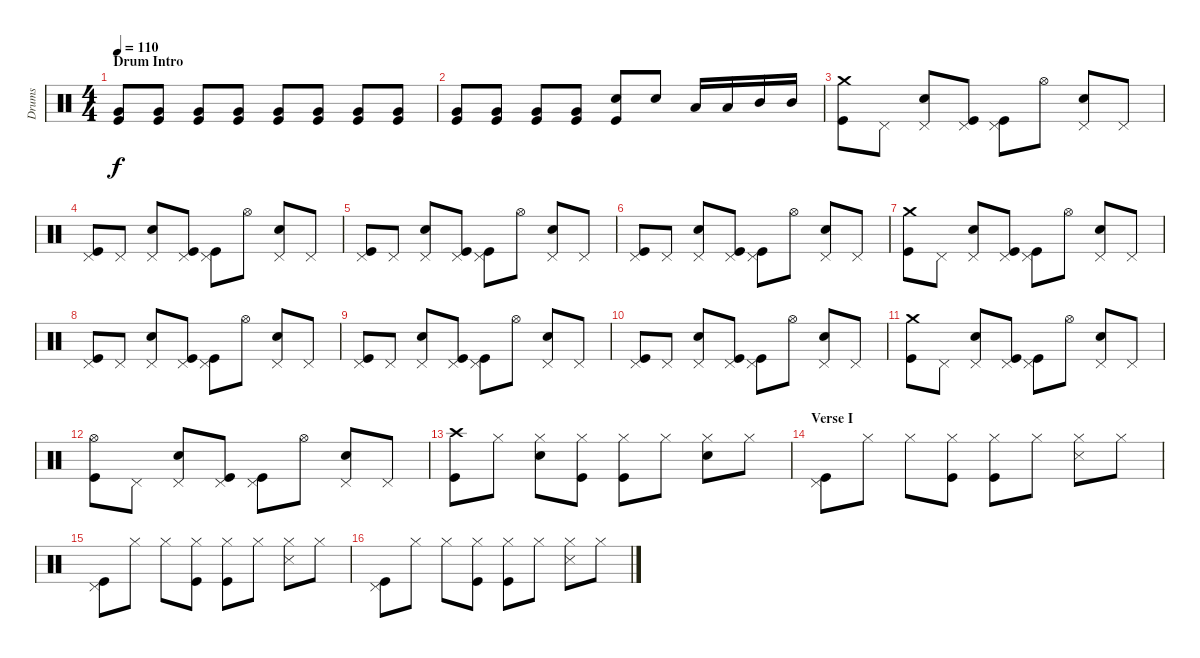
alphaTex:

\track ("Drums" "Drums") {instrument percussion}
\staff {score}
\articulation defaults
\ts (4 4)
\section ("" "Drum Intro")
\tempo 110
\clef neutral
\ks c
("Very Low Tom (hit)" "Kick (hit)").8{dy f volume 6} ("Very Low Tom (hit)" "Kick (hit)").8 ("Very Low Tom (hit)" "Kick (hit)").8{volume 7} ("Very Low Tom (hit)" "Kick (hit)").8 ("Very Low Tom (hit)" "Kick (hit)").8{volume 8} ("Very Low Tom (hit)" "Kick (hit)").8 ("Very Low Tom (hit)" "Kick (hit)").8{volume 10} ("Very Low Tom (hit)" "Kick (hit)").8 |
("Very Low Tom (hit)" "Kick (hit)").8{volume 12} ("Very Low Tom (hit)" "Kick (hit)").8 ("Very Low Tom (hit)" "Kick (hit)").8 ("Very Low Tom (hit)" "Kick (hit)").8 ("Snare (hit) 2" "Kick (hit)").8 "Snare (hit) 2".8 "Low Tom (hit)".16 "Low Tom (hit)".16 "Mid Tom (hit)".16 "Mid Tom (hit)".16 |
("Crash medium (hit)" "Kick (hit)").8 "Pedal Hi-Hat (hit)".8 ("Pedal Hi-Hat (hit)" "Snare (hit) 2").8 ("Pedal Hi-Hat (hit)" "Kick (hit)").8 ("Pedal Hi-Hat (hit)" "Kick (hit)").8 "Hi-Hat (open)".8 ("Pedal Hi-Hat (hit)" "Snare (hit) 2").8 "Pedal Hi-Hat (hit)".8 |
("Pedal Hi-Hat (hit)" "Kick (hit)").8 "Pedal Hi-Hat (hit)".8 ("Pedal Hi-Hat (hit)" "Snare (hit) 2").8 ("Pedal Hi-Hat (hit)" "Kick (hit)").8 ("Pedal Hi-Hat (hit)" "Kick (hit)").8 "Hi-Hat (open)".8 ("Pedal Hi-Hat (hit)" "Snare (hit) 2").8 "Pedal Hi-Hat (hit)".8 |
("Pedal Hi-Hat (hit)" "Kick (hit)").8 "Pedal Hi-Hat (hit)".8 ("Pedal Hi-Hat (hit)" "Snare (hit) 2").8 ("Pedal Hi-Hat (hit)" "Kick (hit)").8 ("Pedal Hi-Hat (hit)" "Kick (hit)").8 "Hi-Hat (open)".8 ("Pedal Hi-Hat (hit)" "Snare (hit) 2").8 "Pedal Hi-Hat (hit)".8 |
("Pedal Hi-Hat (hit)" "Kick (hit)").8 "Pedal Hi-Hat (hit)".8 ("Pedal Hi-Hat (hit)" "Snare (hit) 2").8 ("Pedal Hi-Hat (hit)" "Kick (hit)").8 ("Pedal Hi-Hat (hit)" "Kick (hit)").8 "Hi-Hat (open)".8 ("Pedal Hi-Hat (hit)" "Snare (hit) 2").8 "Pedal Hi-Hat (hit)".8 |
("Crash medium (hit)" "Kick (hit)").8 "Pedal Hi-Hat (hit)".8 ("Pedal Hi-Hat (hit)" "Snare (hit) 2").8 ("Pedal Hi-Hat (hit)" "Kick (hit)").8 ("Pedal Hi-Hat (hit)" "Kick (hit)").8 "Hi-Hat (open)".8 ("Pedal Hi-Hat (hit)" "Snare (hit) 2").8 "Pedal Hi-Hat (hit)".8 |
("Pedal Hi-Hat (hit)" "Kick (hit)").8 "Pedal Hi-Hat (hit)".8 ("Pedal Hi-Hat (hit)" "Snare (hit) 2").8 ("Pedal Hi-Hat (hit)" "Kick (hit)").8 ("Pedal Hi-Hat (hit)" "Kick (hit)").8 "Hi-Hat (open)".8 ("Pedal Hi-Hat (hit)" "Snare (hit) 2").8 "Pedal Hi-Hat (hit)".8 |
("Pedal Hi-Hat (hit)" "Kick (hit)").8 "Pedal Hi-Hat (hit)".8 ("Pedal Hi-Hat (hit)" "Snare (hit) 2").8 ("Pedal Hi-Hat (hit)" "Kick (hit)").8 ("Pedal Hi-Hat (hit)" "Kick (hit)").8 "Hi-Hat (open)".8 ("Pedal Hi-Hat (hit)" "Snare (hit) 2").8 "Pedal Hi-Hat (hit)".8 |
("Pedal Hi-Hat (hit)" "Kick (hit)").8 "Pedal Hi-Hat (hit)".8 ("Pedal Hi-Hat (hit)" "Snare (hit) 2").8 ("Pedal Hi-Hat (hit)" "Kick (hit)").8 ("Pedal Hi-Hat (hit)" "Kick (hit)").8 "Hi-Hat (open)".8 ("Pedal Hi-Hat (hit)" "Snare (hit) 2").8 "Pedal Hi-Hat (hit)".8 |
("Crash medium (hit)" "Kick (hit)").8 "Pedal Hi-Hat (hit)".8 ("Pedal Hi-Hat (hit)" "Snare (hit) 2").8 ("Pedal Hi-Hat (hit)" "Kick (hit)").8 ("Pedal Hi-Hat (hit)" "Kick (hit)").8 "Hi-Hat (open)".8 ("Pedal Hi-Hat (hit)" "Snare (hit) 2").8 "Pedal Hi-Hat (hit)".8 |
("Hi-Hat (open)" "Kick (hit)").8 "Pedal Hi-Hat (hit)".8 ("Pedal Hi-Hat (hit)" "Snare (hit) 2").8 ("Pedal Hi-Hat (hit)" "Kick (hit)").8 ("Pedal Hi-Hat (hit)" "Kick (hit)").8 "Hi-Hat (open)".8 ("Pedal Hi-Hat (hit)" "Snare (hit) 2").8 "Pedal Hi-Hat (hit)".8 |
("Crash high (hit)" "Kick (hit)").8 "Hi-Hat (closed)".8 ("Hi-Hat (closed)" "Snare (hit) 2").8 ("Hi-Hat (closed)" "Kick (hit)").8 ("Hi-Hat (closed)" "Kick (hit)").8 "Hi-Hat (closed)".8 ("Hi-Hat (closed)" "Snare (hit) 2").8 "Hi-Hat (closed)".8 |
\section ("" "Verse I")
("Pedal Hi-Hat (hit)" "Kick (hit)").8 "Hi-Hat (closed)".8 "Hi-Hat (closed)".8 ("Hi-Hat (closed)" "Kick (hit)").8 ("Hi-Hat (closed)" "Kick (hit)").8 "Hi-Hat (closed)".8 ("Hi-Hat (closed)" "Snare (side stick) 3").8 "Hi-Hat (closed)".8 |
("Pedal Hi-Hat (hit)" "Kick (hit)").8 "Hi-Hat (closed)".8 "Hi-Hat (closed)".8 ("Hi-Hat (closed)" "Kick (hit)").8 ("Hi-Hat (closed)" "Kick (hit)").8 "Hi-Hat (closed)".8 ("Hi-Hat (closed)" "Snare (side stick) 3").8 "Hi-Hat (closed)".8 |
("Pedal Hi-Hat (hit)" "Kick (hit)").8 "Hi-Hat (closed)".8 "Hi-Hat (closed)".8 ("Hi-Hat (closed)" "Kick (hit)").8 ("Hi-Hat (closed)" "Kick (hit)").8 "Hi-Hat (closed)".8 ("Hi-Hat (closed)" "Snare (side stick) 3").8 "Hi-Hat (closed)".8
